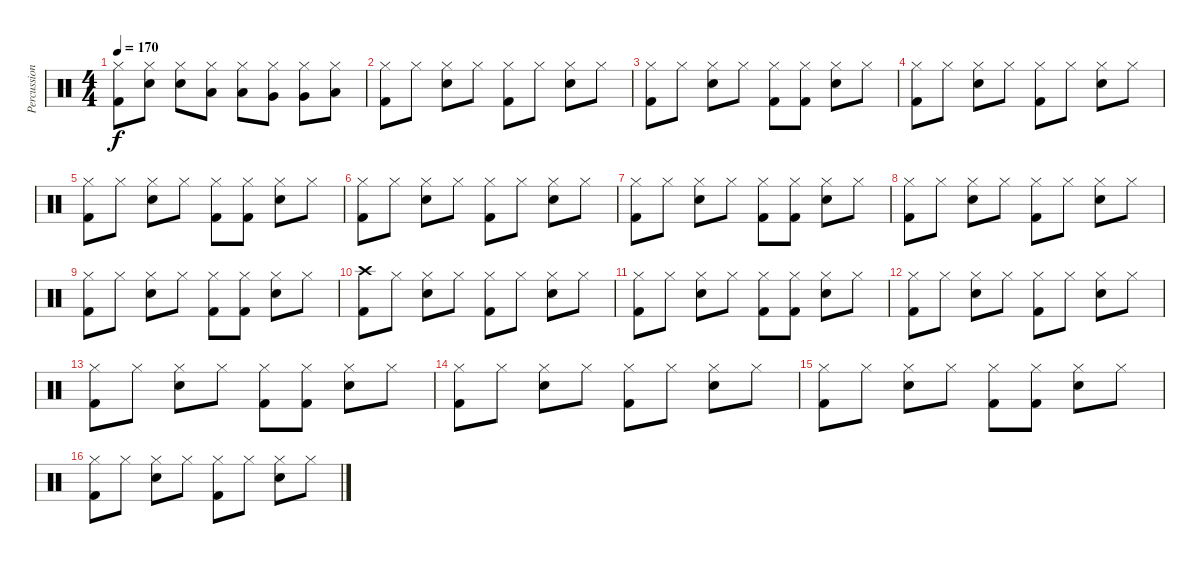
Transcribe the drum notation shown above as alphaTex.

\track ("Percussion" "Percussion") {instrument percussion}
\staff {score}
\articulation defaults
\ts (4 4)
\tempo 170
\clef neutral
\ks c
("Hi-Hat (closed)" "Kick (hit) 2").8{dy f} ("Hi-Hat (closed)" "Snare (hit) 2").8 ("Hi-Hat (closed)" "Snare (hit) 2").8 ("Hi-Hat (closed)" "Low Tom (hit)").8 ("Hi-Hat (closed)" "Low Tom (hit)").8 ("Hi-Hat (closed)" "Very Low Tom (hit)").8 ("Hi-Hat (closed)" "Very Low Tom (hit)").8 ("Hi-Hat (closed)" "Low Floor Tom (hit)").8 |
("Hi-Hat (closed)" "Kick (hit) 2").8 "Hi-Hat (closed)".8 ("Hi-Hat (closed)" "Snare (hit) 2").8 "Hi-Hat (closed)".8 ("Hi-Hat (closed)" "Kick (hit) 2").8 "Hi-Hat (closed)".8 ("Hi-Hat (closed)" "Snare (hit) 2").8 "Hi-Hat (closed)".8 |
("Hi-Hat (closed)" "Kick (hit) 2").8 "Hi-Hat (closed)".8 ("Hi-Hat (closed)" "Snare (hit) 2").8 "Hi-Hat (closed)".8 ("Hi-Hat (closed)" "Kick (hit) 2").8 ("Hi-Hat (closed)" "Kick (hit) 2").8 ("Hi-Hat (closed)" "Snare (hit) 2").8 "Hi-Hat (closed)".8 |
("Hi-Hat (closed)" "Kick (hit) 2").8 "Hi-Hat (closed)".8 ("Hi-Hat (closed)" "Snare (hit) 2").8 "Hi-Hat (closed)".8 ("Hi-Hat (closed)" "Kick (hit) 2").8 "Hi-Hat (closed)".8 ("Hi-Hat (closed)" "Snare (hit) 2").8 "Hi-Hat (closed)".8 |
("Hi-Hat (closed)" "Kick (hit) 2").8 "Hi-Hat (closed)".8 ("Hi-Hat (closed)" "Snare (hit) 2").8 "Hi-Hat (closed)".8 ("Hi-Hat (closed)" "Kick (hit) 2").8 ("Hi-Hat (closed)" "Kick (hit) 2").8 ("Hi-Hat (closed)" "Snare (hit) 2").8 "Hi-Hat (closed)".8 |
("Hi-Hat (closed)" "Kick (hit) 2").8 "Hi-Hat (closed)".8 ("Hi-Hat (closed)" "Snare (hit) 2").8 "Hi-Hat (closed)".8 ("Hi-Hat (closed)" "Kick (hit) 2").8 "Hi-Hat (closed)".8 ("Hi-Hat (closed)" "Snare (hit) 2").8 "Hi-Hat (closed)".8 |
("Hi-Hat (closed)" "Kick (hit) 2").8 "Hi-Hat (closed)".8 ("Hi-Hat (closed)" "Snare (hit) 2").8 "Hi-Hat (closed)".8 ("Hi-Hat (closed)" "Kick (hit) 2").8 ("Hi-Hat (closed)" "Kick (hit) 2").8 ("Hi-Hat (closed)" "Snare (hit) 2").8 "Hi-Hat (closed)".8 |
("Hi-Hat (closed)" "Kick (hit) 2").8 "Hi-Hat (closed)".8 ("Hi-Hat (closed)" "Snare (hit) 2").8 "Hi-Hat (closed)".8 ("Hi-Hat (closed)" "Kick (hit) 2").8 "Hi-Hat (closed)".8 ("Hi-Hat (closed)" "Snare (hit) 2").8 "Hi-Hat (closed)".8 |
("Hi-Hat (closed)" "Kick (hit) 2").8 "Hi-Hat (closed)".8 ("Hi-Hat (closed)" "Snare (hit) 2").8 "Hi-Hat (closed)".8 ("Hi-Hat (closed)" "Kick (hit) 2").8 ("Hi-Hat (closed)" "Kick (hit) 2").8 ("Hi-Hat (closed)" "Snare (hit) 2").8 "Hi-Hat (closed)".8 |
("Crash high (hit)" "Kick (hit) 2").8 "Hi-Hat (closed)".8 ("Hi-Hat (closed)" "Snare (hit) 2").8 "Hi-Hat (closed)".8 ("Hi-Hat (closed)" "Kick (hit) 2").8 "Hi-Hat (closed)".8 ("Hi-Hat (closed)" "Snare (hit) 2").8 "Hi-Hat (closed)".8 |
("Hi-Hat (closed)" "Kick (hit) 2").8 "Hi-Hat (closed)".8 ("Hi-Hat (closed)" "Snare (hit) 2").8 "Hi-Hat (closed)".8 ("Hi-Hat (closed)" "Kick (hit) 2").8 ("Hi-Hat (closed)" "Kick (hit) 2").8 ("Hi-Hat (closed)" "Snare (hit) 2").8 "Hi-Hat (closed)".8 |
("Hi-Hat (closed)" "Kick (hit) 2").8 "Hi-Hat (closed)".8 ("Hi-Hat (closed)" "Snare (hit) 2").8 "Hi-Hat (closed)".8 ("Hi-Hat (closed)" "Kick (hit) 2").8 "Hi-Hat (closed)".8 ("Hi-Hat (closed)" "Snare (hit) 2").8 "Hi-Hat (closed)".8 |
("Hi-Hat (closed)" "Kick (hit) 2").8 "Hi-Hat (closed)".8 ("Hi-Hat (closed)" "Snare (hit) 2").8 "Hi-Hat (closed)".8 ("Hi-Hat (closed)" "Kick (hit) 2").8 ("Hi-Hat (closed)" "Kick (hit) 2").8 ("Hi-Hat (closed)" "Snare (hit) 2").8 "Hi-Hat (closed)".8 |
("Hi-Hat (closed)" "Kick (hit) 2").8 "Hi-Hat (closed)".8 ("Hi-Hat (closed)" "Snare (hit) 2").8 "Hi-Hat (closed)".8 ("Hi-Hat (closed)" "Kick (hit) 2").8 "Hi-Hat (closed)".8 ("Hi-Hat (closed)" "Snare (hit) 2").8 "Hi-Hat (closed)".8 |
("Hi-Hat (closed)" "Kick (hit) 2").8 "Hi-Hat (closed)".8 ("Hi-Hat (closed)" "Snare (hit) 2").8 "Hi-Hat (closed)".8 ("Hi-Hat (closed)" "Kick (hit) 2").8 ("Hi-Hat (closed)" "Kick (hit) 2").8 ("Hi-Hat (closed)" "Snare (hit) 2").8 "Hi-Hat (closed)".8 |
("Hi-Hat (closed)" "Kick (hit) 2").8 "Hi-Hat (closed)".8 ("Hi-Hat (closed)" "Snare (hit) 2").8 "Hi-Hat (closed)".8 ("Hi-Hat (closed)" "Kick (hit) 2").8 "Hi-Hat (closed)".8 ("Hi-Hat (closed)" "Snare (hit) 2").8 "Hi-Hat (closed)".8
